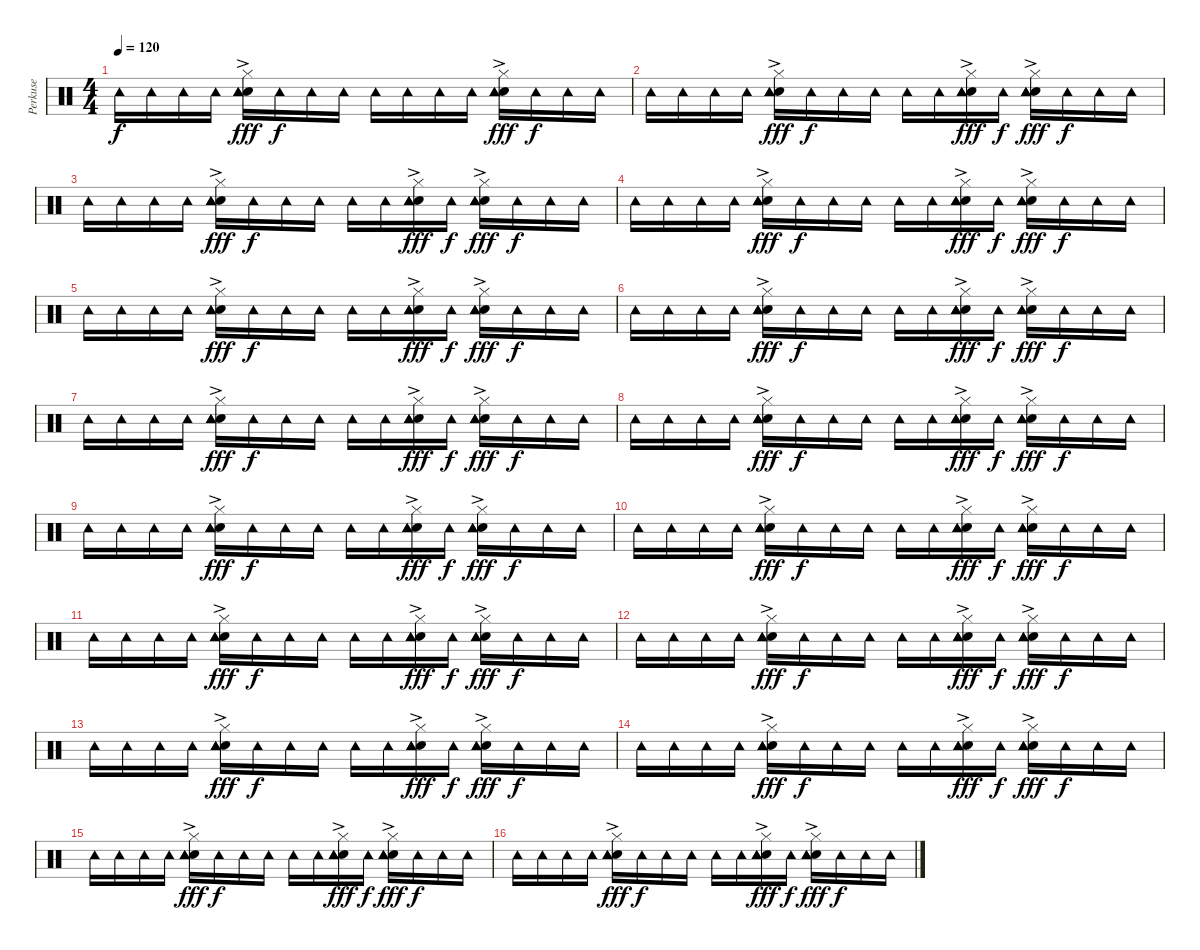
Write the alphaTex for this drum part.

\track ("Perkuse" "Perkuse") {instrument percussion}
\staff {score}
\articulation defaults
\ts (4 4)
\tempo 120
\tempo 100
\tempo 120
\clef neutral
\ks c "Tambourine (hit)".16{dy f volume 7} "Tambourine (hit)".16 "Tambourine (hit)".16 "Tambourine (hit)".16
("Hi-Hat (closed)" "Hand Clap (hit)" "Tambourine (hit)"{ac} "Tambourine (hit)"{ac} "Tambourine (hit)"{ac}).16{dy fff} "Tambourine (hit)".16{dy f} "Tambourine (hit)".16 "Tambourine (hit)".16 "Tambourine (hit)".16 "Tambourine (hit)".16 "Tambourine (hit)".16 "Tambourine (hit)".16 ("Hi-Hat (closed)" "Hand Clap (hit)" "Tambourine (hit)"{ac} "Tambourine (hit)"{ac} "Tambourine (hit)"{ac}).16{dy fff} "Tambourine (hit)".16{dy f} "Tambourine (hit)".16 "Tambourine (hit)".16 |
"Tambourine (hit)".16 "Tambourine (hit)".16 "Tambourine (hit)".16 "Tambourine (hit)".16 ("Hi-Hat (closed)" "Hand Clap (hit)" "Tambourine (hit)"{ac} "Tambourine (hit)"{ac} "Tambourine (hit)"{ac}).16{dy fff} "Tambourine (hit)".16{dy f} "Tambourine (hit)".16 "Tambourine (hit)".16 "Tambourine (hit)".16 "Tambourine (hit)".16 ("Hi-Hat (closed)" "Hand Clap (hit)" "Tambourine (hit)"{ac} "Tambourine (hit)"{ac} "Tambourine (hit)"{ac}).16{dy fff} "Tambourine (hit)".16{dy f} ("Hi-Hat (closed)" "Hand Clap (hit)" "Tambourine (hit)"{ac} "Tambourine (hit)"{ac} "Tambourine (hit)"{ac}).16{dy fff} "Tambourine (hit)".16{dy f} "Tambourine (hit)".16 "Tambourine (hit)".16 |
"Tambourine (hit)".16 "Tambourine (hit)".16 "Tambourine (hit)".16 "Tambourine (hit)".16 ("Hi-Hat (closed)" "Hand Clap (hit)" "Tambourine (hit)"{ac} "Tambourine (hit)"{ac} "Tambourine (hit)"{ac}).16{dy fff} "Tambourine (hit)".16{dy f} "Tambourine (hit)".16 "Tambourine (hit)".16 "Tambourine (hit)".16 "Tambourine (hit)".16 ("Hi-Hat (closed)" "Hand Clap (hit)" "Tambourine (hit)"{ac} "Tambourine (hit)"{ac} "Tambourine (hit)"{ac}).16{dy fff} "Tambourine (hit)".16{dy f} ("Hi-Hat (closed)" "Hand Clap (hit)" "Tambourine (hit)"{ac} "Tambourine (hit)"{ac} "Tambourine (hit)"{ac}).16{dy fff} "Tambourine (hit)".16{dy f} "Tambourine (hit)".16 "Tambourine (hit)".16 |
"Tambourine (hit)".16 "Tambourine (hit)".16 "Tambourine (hit)".16 "Tambourine (hit)".16 ("Hi-Hat (closed)" "Hand Clap (hit)" "Tambourine (hit)"{ac} "Tambourine (hit)"{ac} "Tambourine (hit)"{ac}).16{dy fff} "Tambourine (hit)".16{dy f} "Tambourine (hit)".16 "Tambourine (hit)".16 "Tambourine (hit)".16 "Tambourine (hit)".16 ("Hi-Hat (closed)" "Hand Clap (hit)" "Tambourine (hit)"{ac} "Tambourine (hit)"{ac} "Tambourine (hit)"{ac}).16{dy fff} "Tambourine (hit)".16{dy f} ("Hi-Hat (closed)" "Hand Clap (hit)" "Tambourine (hit)"{ac} "Tambourine (hit)"{ac} "Tambourine (hit)"{ac}).16{dy fff} "Tambourine (hit)".16{dy f} "Tambourine (hit)".16 "Tambourine (hit)".16 |
"Tambourine (hit)".16 "Tambourine (hit)".16 "Tambourine (hit)".16 "Tambourine (hit)".16 ("Hi-Hat (closed)" "Hand Clap (hit)" "Tambourine (hit)"{ac} "Tambourine (hit)"{ac} "Tambourine (hit)"{ac}).16{dy fff} "Tambourine (hit)".16{dy f} "Tambourine (hit)".16 "Tambourine (hit)".16 "Tambourine (hit)".16 "Tambourine (hit)".16 ("Hi-Hat (closed)" "Hand Clap (hit)" "Tambourine (hit)"{ac} "Tambourine (hit)"{ac} "Tambourine (hit)"{ac}).16{dy fff} "Tambourine (hit)".16{dy f} ("Hi-Hat (closed)" "Hand Clap (hit)" "Tambourine (hit)"{ac} "Tambourine (hit)"{ac} "Tambourine (hit)"{ac}).16{dy fff} "Tambourine (hit)".16{dy f} "Tambourine (hit)".16 "Tambourine (hit)".16 |
"Tambourine (hit)".16 "Tambourine (hit)".16 "Tambourine (hit)".16 "Tambourine (hit)".16 ("Hi-Hat (closed)" "Hand Clap (hit)" "Tambourine (hit)"{ac} "Tambourine (hit)"{ac} "Tambourine (hit)"{ac}).16{dy fff} "Tambourine (hit)".16{dy f} "Tambourine (hit)".16 "Tambourine (hit)".16 "Tambourine (hit)".16 "Tambourine (hit)".16 ("Hi-Hat (closed)" "Hand Clap (hit)" "Tambourine (hit)"{ac} "Tambourine (hit)"{ac} "Tambourine (hit)"{ac}).16{dy fff} "Tambourine (hit)".16{dy f} ("Hi-Hat (closed)" "Hand Clap (hit)" "Tambourine (hit)"{ac} "Tambourine (hit)"{ac} "Tambourine (hit)"{ac}).16{dy fff} "Tambourine (hit)".16{dy f} "Tambourine (hit)".16 "Tambourine (hit)".16 |
"Tambourine (hit)".16 "Tambourine (hit)".16 "Tambourine (hit)".16 "Tambourine (hit)".16 ("Hi-Hat (closed)" "Hand Clap (hit)" "Tambourine (hit)"{ac} "Tambourine (hit)"{ac} "Tambourine (hit)"{ac}).16{dy fff} "Tambourine (hit)".16{dy f} "Tambourine (hit)".16 "Tambourine (hit)".16 "Tambourine (hit)".16 "Tambourine (hit)".16 ("Hi-Hat (closed)" "Hand Clap (hit)" "Tambourine (hit)"{ac} "Tambourine (hit)"{ac} "Tambourine (hit)"{ac}).16{dy fff} "Tambourine (hit)".16{dy f} ("Hi-Hat (closed)" "Hand Clap (hit)" "Tambourine (hit)"{ac} "Tambourine (hit)"{ac} "Tambourine (hit)"{ac}).16{dy fff} "Tambourine (hit)".16{dy f} "Tambourine (hit)".16 "Tambourine (hit)".16 |
"Tambourine (hit)".16 "Tambourine (hit)".16 "Tambourine (hit)".16 "Tambourine (hit)".16 ("Hi-Hat (closed)" "Hand Clap (hit)" "Tambourine (hit)"{ac} "Tambourine (hit)"{ac} "Tambourine (hit)"{ac}).16{dy fff} "Tambourine (hit)".16{dy f} "Tambourine (hit)".16 "Tambourine (hit)".16 "Tambourine (hit)".16 "Tambourine (hit)".16 ("Hi-Hat (closed)" "Hand Clap (hit)" "Tambourine (hit)"{ac} "Tambourine (hit)"{ac} "Tambourine (hit)"{ac}).16{dy fff} "Tambourine (hit)".16{dy f} ("Hi-Hat (closed)" "Hand Clap (hit)" "Tambourine (hit)"{ac} "Tambourine (hit)"{ac} "Tambourine (hit)"{ac}).16{dy fff} "Tambourine (hit)".16{dy f} "Tambourine (hit)".16 "Tambourine (hit)".16 |
"Tambourine (hit)".16 "Tambourine (hit)".16 "Tambourine (hit)".16 "Tambourine (hit)".16 ("Hi-Hat (closed)" "Hand Clap (hit)" "Tambourine (hit)"{ac} "Tambourine (hit)"{ac} "Tambourine (hit)"{ac}).16{dy fff} "Tambourine (hit)".16{dy f} "Tambourine (hit)".16 "Tambourine (hit)".16 "Tambourine (hit)".16 "Tambourine (hit)".16 ("Hi-Hat (closed)" "Hand Clap (hit)" "Tambourine (hit)"{ac} "Tambourine (hit)"{ac} "Tambourine (hit)"{ac}).16{dy fff} "Tambourine (hit)".16{dy f} ("Hi-Hat (closed)" "Hand Clap (hit)" "Tambourine (hit)"{ac} "Tambourine (hit)"{ac} "Tambourine (hit)"{ac}).16{dy fff} "Tambourine (hit)".16{dy f} "Tambourine (hit)".16 "Tambourine (hit)".16 |
"Tambourine (hit)".16 "Tambourine (hit)".16 "Tambourine (hit)".16 "Tambourine (hit)".16 ("Hi-Hat (closed)" "Hand Clap (hit)" "Tambourine (hit)"{ac} "Tambourine (hit)"{ac} "Tambourine (hit)"{ac}).16{dy fff} "Tambourine (hit)".16{dy f} "Tambourine (hit)".16 "Tambourine (hit)".16 "Tambourine (hit)".16 "Tambourine (hit)".16 ("Hi-Hat (closed)" "Hand Clap (hit)" "Tambourine (hit)"{ac} "Tambourine (hit)"{ac} "Tambourine (hit)"{ac}).16{dy fff} "Tambourine (hit)".16{dy f} ("Hi-Hat (closed)" "Hand Clap (hit)" "Tambourine (hit)"{ac} "Tambourine (hit)"{ac} "Tambourine (hit)"{ac}).16{dy fff} "Tambourine (hit)".16{dy f} "Tambourine (hit)".16 "Tambourine (hit)".16 |
"Tambourine (hit)".16 "Tambourine (hit)".16 "Tambourine (hit)".16 "Tambourine (hit)".16 ("Hi-Hat (closed)" "Hand Clap (hit)" "Tambourine (hit)"{ac} "Tambourine (hit)"{ac} "Tambourine (hit)"{ac}).16{dy fff} "Tambourine (hit)".16{dy f} "Tambourine (hit)".16 "Tambourine (hit)".16 "Tambourine (hit)".16 "Tambourine (hit)".16 ("Hi-Hat (closed)" "Hand Clap (hit)" "Tambourine (hit)"{ac} "Tambourine (hit)"{ac} "Tambourine (hit)"{ac}).16{dy fff} "Tambourine (hit)".16{dy f} ("Hi-Hat (closed)" "Hand Clap (hit)" "Tambourine (hit)"{ac} "Tambourine (hit)"{ac} "Tambourine (hit)"{ac}).16{dy fff} "Tambourine (hit)".16{dy f} "Tambourine (hit)".16 "Tambourine (hit)".16 |
"Tambourine (hit)".16 "Tambourine (hit)".16 "Tambourine (hit)".16 "Tambourine (hit)".16 ("Hi-Hat (closed)" "Hand Clap (hit)" "Tambourine (hit)"{ac} "Tambourine (hit)"{ac} "Tambourine (hit)"{ac}).16{dy fff} "Tambourine (hit)".16{dy f} "Tambourine (hit)".16 "Tambourine (hit)".16 "Tambourine (hit)".16 "Tambourine (hit)".16 ("Hi-Hat (closed)" "Hand Clap (hit)" "Tambourine (hit)"{ac} "Tambourine (hit)"{ac} "Tambourine (hit)"{ac}).16{dy fff} "Tambourine (hit)".16{dy f} ("Hi-Hat (closed)" "Hand Clap (hit)" "Tambourine (hit)"{ac} "Tambourine (hit)"{ac} "Tambourine (hit)"{ac}).16{dy fff} "Tambourine (hit)".16{dy f} "Tambourine (hit)".16 "Tambourine (hit)".16 |
"Tambourine (hit)".16 "Tambourine (hit)".16 "Tambourine (hit)".16 "Tambourine (hit)".16 ("Hi-Hat (closed)" "Hand Clap (hit)" "Tambourine (hit)"{ac} "Tambourine (hit)"{ac} "Tambourine (hit)"{ac}).16{dy fff} "Tambourine (hit)".16{dy f} "Tambourine (hit)".16 "Tambourine (hit)".16 "Tambourine (hit)".16 "Tambourine (hit)".16 ("Hi-Hat (closed)" "Hand Clap (hit)" "Tambourine (hit)"{ac} "Tambourine (hit)"{ac} "Tambourine (hit)"{ac}).16{dy fff} "Tambourine (hit)".16{dy f} ("Hi-Hat (closed)" "Hand Clap (hit)" "Tambourine (hit)"{ac} "Tambourine (hit)"{ac} "Tambourine (hit)"{ac}).16{dy fff} "Tambourine (hit)".16{dy f} "Tambourine (hit)".16 "Tambourine (hit)".16 |
"Tambourine (hit)".16 "Tambourine (hit)".16 "Tambourine (hit)".16 "Tambourine (hit)".16 ("Hi-Hat (closed)" "Hand Clap (hit)" "Tambourine (hit)"{ac} "Tambourine (hit)"{ac} "Tambourine (hit)"{ac}).16{dy fff} "Tambourine (hit)".16{dy f} "Tambourine (hit)".16 "Tambourine (hit)".16 "Tambourine (hit)".16 "Tambourine (hit)".16 ("Hi-Hat (closed)" "Hand Clap (hit)" "Tambourine (hit)"{ac} "Tambourine (hit)"{ac} "Tambourine (hit)"{ac}).16{dy fff} "Tambourine (hit)".16{dy f} ("Hi-Hat (closed)" "Hand Clap (hit)" "Tambourine (hit)"{ac} "Tambourine (hit)"{ac} "Tambourine (hit)"{ac}).16{dy fff} "Tambourine (hit)".16{dy f} "Tambourine (hit)".16 "Tambourine (hit)".16 |
"Tambourine (hit)".16 "Tambourine (hit)".16 "Tambourine (hit)".16 "Tambourine (hit)".16 ("Hi-Hat (closed)" "Hand Clap (hit)" "Tambourine (hit)"{ac} "Tambourine (hit)"{ac} "Tambourine (hit)"{ac}).16{dy fff} "Tambourine (hit)".16{dy f} "Tambourine (hit)".16 "Tambourine (hit)".16 "Tambourine (hit)".16 "Tambourine (hit)".16 ("Hi-Hat (closed)" "Hand Clap (hit)" "Tambourine (hit)"{ac} "Tambourine (hit)"{ac} "Tambourine (hit)"{ac}).16{dy fff} "Tambourine (hit)".16{dy f} ("Hi-Hat (closed)" "Hand Clap (hit)" "Tambourine (hit)"{ac} "Tambourine (hit)"{ac} "Tambourine (hit)"{ac}).16{dy fff} "Tambourine (hit)".16{dy f} "Tambourine (hit)".16 "Tambourine (hit)".16 |
"Tambourine (hit)".16 "Tambourine (hit)".16 "Tambourine (hit)".16 "Tambourine (hit)".16 ("Hi-Hat (closed)" "Hand Clap (hit)" "Tambourine (hit)"{ac} "Tambourine (hit)"{ac} "Tambourine (hit)"{ac}).16{dy fff} "Tambourine (hit)".16{dy f} "Tambourine (hit)".16 "Tambourine (hit)".16 "Tambourine (hit)".16 "Tambourine (hit)".16 ("Hi-Hat (closed)" "Hand Clap (hit)" "Tambourine (hit)"{ac} "Tambourine (hit)"{ac} "Tambourine (hit)"{ac}).16{dy fff} "Tambourine (hit)".16{dy f} ("Hi-Hat (closed)" "Hand Clap (hit)" "Tambourine (hit)"{ac} "Tambourine (hit)"{ac} "Tambourine (hit)"{ac}).16{dy fff} "Tambourine (hit)".16{dy f} "Tambourine (hit)".16 "Tambourine (hit)".16
